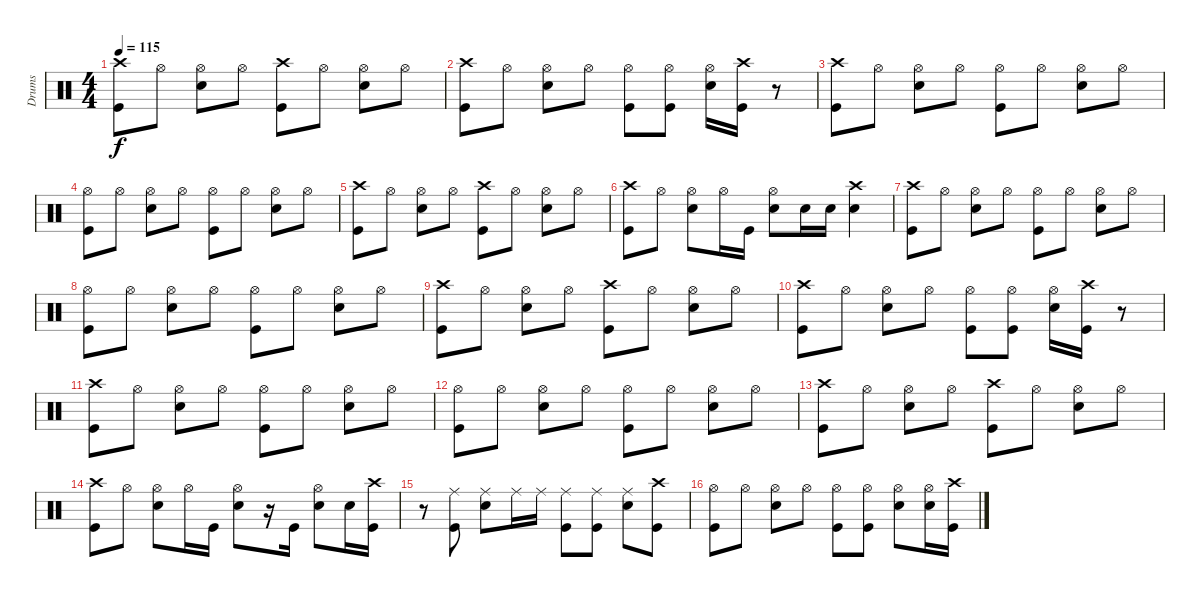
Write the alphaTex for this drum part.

\track ("Drums" "Drums") {instrument percussion}
\staff {score}
\articulation defaults
\ts (4 4)
\tempo 115
\clef neutral
\ks c
("Crash high (hit)" "Kick (hit)").8{dy f} "Hi-Hat (open)".8 ("Hi-Hat (open)" "Snare (hit) 2").8 "Hi-Hat (open)".8 ("Crash high (hit)" "Kick (hit)").8 "Hi-Hat (open)".8 ("Hi-Hat (open)" "Snare (hit) 2").8 "Hi-Hat (open)".8 |
("Crash high (hit)" "Kick (hit)").8 "Hi-Hat (open)".8 ("Hi-Hat (open)" "Snare (hit) 2").8 "Hi-Hat (open)".8 ("Hi-Hat (open)" "Kick (hit)").8 ("Hi-Hat (open)" "Kick (hit)").8 ("Hi-Hat (open)" "Snare (hit) 2").16 ("Crash high (hit)" "Kick (hit)").16 r.8 |
("Crash high (hit)" "Kick (hit)").8 "Hi-Hat (open)".8 ("Hi-Hat (open)" "Snare (hit) 2").8 "Hi-Hat (open)".8 ("Hi-Hat (open)" "Kick (hit)").8 "Hi-Hat (open)".8 ("Hi-Hat (open)" "Snare (hit) 2").8 "Hi-Hat (open)".8 |
("Hi-Hat (open)" "Kick (hit)").8 "Hi-Hat (open)".8 ("Hi-Hat (open)" "Snare (hit) 2").8 "Hi-Hat (open)".8 ("Hi-Hat (open)" "Kick (hit)").8 "Hi-Hat (open)".8 ("Hi-Hat (open)" "Snare (hit) 2").8 "Hi-Hat (open)".8 |
("Crash high (hit)" "Kick (hit)").8 "Hi-Hat (open)".8 ("Hi-Hat (open)" "Snare (hit) 2").8 "Hi-Hat (open)".8 ("Crash high (hit)" "Kick (hit)").8 "Hi-Hat (open)".8 ("Hi-Hat (open)" "Snare (hit) 2").8 "Hi-Hat (open)".8 |
("Crash high (hit)" "Kick (hit)").8 "Hi-Hat (open)".8 ("Hi-Hat (open)" "Snare (hit) 2").8 "Hi-Hat (open)".16 "Kick (hit)".16 ("Hi-Hat (open)" "Snare (hit) 2").8 "Snare (hit) 2".16 "Snare (hit) 2".16 ("Crash high (hit)" "Snare (hit) 2").4 |
("Crash high (hit)" "Kick (hit)").8 "Hi-Hat (open)".8 ("Hi-Hat (open)" "Snare (hit) 2").8 "Hi-Hat (open)".8 ("Hi-Hat (open)" "Kick (hit)").8 "Hi-Hat (open)".8 ("Hi-Hat (open)" "Snare (hit) 2").8 "Hi-Hat (open)".8 |
("Hi-Hat (open)" "Kick (hit)").8 "Hi-Hat (open)".8 ("Hi-Hat (open)" "Snare (hit) 2").8 "Hi-Hat (open)".8 ("Hi-Hat (open)" "Kick (hit)").8 "Hi-Hat (open)".8 ("Hi-Hat (open)" "Snare (hit) 2").8 "Hi-Hat (open)".8 |
("Crash high (hit)" "Kick (hit)").8 "Hi-Hat (open)".8 ("Hi-Hat (open)" "Snare (hit) 2").8 "Hi-Hat (open)".8 ("Crash high (hit)" "Kick (hit)").8 "Hi-Hat (open)".8 ("Hi-Hat (open)" "Snare (hit) 2").8 "Hi-Hat (open)".8 |
("Crash high (hit)" "Kick (hit)").8 "Hi-Hat (open)".8 ("Hi-Hat (open)" "Snare (hit) 2").8 "Hi-Hat (open)".8 ("Hi-Hat (open)" "Kick (hit)").8 ("Hi-Hat (open)" "Kick (hit)").8 ("Hi-Hat (open)" "Snare (hit) 2").16 ("Crash high (hit)" "Kick (hit)").16 r.8 |
("Crash high (hit)" "Kick (hit)").8 "Hi-Hat (open)".8 ("Hi-Hat (open)" "Snare (hit) 2").8 "Hi-Hat (open)".8 ("Hi-Hat (open)" "Kick (hit)").8 "Hi-Hat (open)".8 ("Hi-Hat (open)" "Snare (hit) 2").8 "Hi-Hat (open)".8 |
("Hi-Hat (open)" "Kick (hit)").8 "Hi-Hat (open)".8 ("Hi-Hat (open)" "Snare (hit) 2").8 "Hi-Hat (open)".8 ("Hi-Hat (open)" "Kick (hit)").8 "Hi-Hat (open)".8 ("Hi-Hat (open)" "Snare (hit) 2").8 "Hi-Hat (open)".8 |
("Crash high (hit)" "Kick (hit)").8 "Hi-Hat (open)".8 ("Hi-Hat (open)" "Snare (hit) 2").8 "Hi-Hat (open)".8 ("Crash high (hit)" "Kick (hit)").8 "Hi-Hat (open)".8 ("Hi-Hat (open)" "Snare (hit) 2").8 "Hi-Hat (open)".8 |
("Crash high (hit)" "Kick (hit)").8 "Hi-Hat (open)".8 ("Hi-Hat (open)" "Snare (hit) 2").8 "Hi-Hat (open)".16 "Kick (hit)".16 ("Hi-Hat (open)" "Snare (hit) 2").8 r.16 "Kick (hit)".16 ("Hi-Hat (open)" "Snare (hit) 2").8 "Snare (hit) 2".16 ("Crash high (hit)" "Kick (hit)").16 |
r.8 ("Ride (middle)" "Kick (hit)").8 ("Ride (middle)" "Snare (hit) 2").8 "Ride (middle)".16 "Ride (middle)".16 ("Ride (middle)" "Kick (hit)").8 ("Ride (middle)" "Kick (hit)").8 ("Ride (middle)" "Snare (hit) 2").8 ("Crash high (hit)" "Kick (hit)").8 |
("Hi-Hat (open)" "Kick (hit)").8 "Hi-Hat (open)".8 ("Hi-Hat (open)" "Snare (hit) 2").8 "Hi-Hat (open)".8 ("Hi-Hat (open)" "Kick (hit)").8 ("Hi-Hat (open)" "Kick (hit)").8 ("Hi-Hat (open)" "Snare (hit) 2").8 ("Hi-Hat (open)" "Snare (hit) 2").16 ("Crash high (hit)" "Kick (hit)").16
